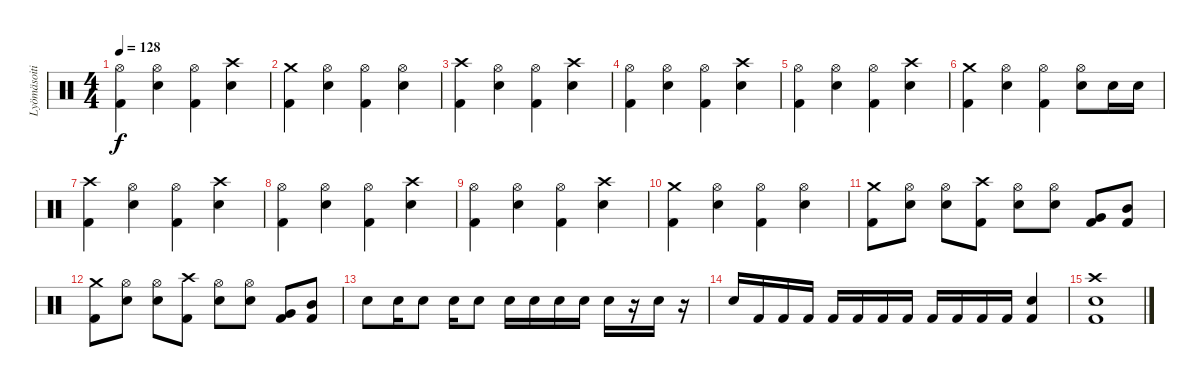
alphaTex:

\track ("Lyömäsoitin" "Lyömäsoiti") {instrument percussion}
\staff {score}
\articulation defaults
\ts (4 4)
\tempo 128
\clef neutral
\ks c
("Hi-Hat (open)" "Kick (hit) 2").4{dy f} ("Hi-Hat (open)" "Electric Snare (hit)").4 ("Hi-Hat (open)" "Kick (hit) 2").4 ("Crash high (hit)" "Electric Snare (hit)").4 |
("Crash medium (hit)" "Kick (hit) 2").4 ("Hi-Hat (open)" "Electric Snare (hit)").4 ("Hi-Hat (open)" "Kick (hit) 2").4 ("Hi-Hat (open)" "Electric Snare (hit)").4 |
("Crash high (hit)" "Kick (hit) 2").4 ("Hi-Hat (open)" "Electric Snare (hit)").4 ("Hi-Hat (open)" "Kick (hit) 2").4 ("Crash high (hit)" "Electric Snare (hit)").4 |
("Hi-Hat (open)" "Kick (hit) 2").4 ("Hi-Hat (open)" "Electric Snare (hit)").4 ("Hi-Hat (open)" "Kick (hit) 2").4 ("Crash high (hit)" "Electric Snare (hit)").4 |
("Hi-Hat (open)" "Kick (hit) 2").4 ("Hi-Hat (open)" "Electric Snare (hit)").4 ("Hi-Hat (open)" "Kick (hit) 2").4 ("Crash high (hit)" "Electric Snare (hit)").4 |
("Crash medium (hit)" "Kick (hit) 2").4 ("Hi-Hat (open)" "Electric Snare (hit)").4 ("Hi-Hat (open)" "Kick (hit) 2").4 ("Hi-Hat (open)" "Electric Snare (hit)").8 "Electric Snare (hit)".16 "Electric Snare (hit)".16 |
("Crash high (hit)" "Kick (hit) 2").4 ("Hi-Hat (open)" "Electric Snare (hit)").4 ("Hi-Hat (open)" "Kick (hit) 2").4 ("Crash high (hit)" "Electric Snare (hit)").4 |
("Hi-Hat (open)" "Kick (hit) 2").4 ("Hi-Hat (open)" "Electric Snare (hit)").4 ("Hi-Hat (open)" "Kick (hit) 2").4 ("Crash high (hit)" "Electric Snare (hit)").4 |
("Hi-Hat (open)" "Kick (hit) 2").4 ("Hi-Hat (open)" "Electric Snare (hit)").4 ("Hi-Hat (open)" "Kick (hit) 2").4 ("Crash high (hit)" "Electric Snare (hit)").4 |
("Crash medium (hit)" "Kick (hit) 2").4 ("Hi-Hat (open)" "Electric Snare (hit)").4 ("Hi-Hat (open)" "Kick (hit) 2").4 ("Hi-Hat (open)" "Electric Snare (hit)").4 |
("Crash medium (hit)" "Kick (hit) 2").8 ("Hi-Hat (open)" "Electric Snare (hit)").8 ("Hi-Hat (open)" "Electric Snare (hit)").8 ("Crash high (hit)" "Kick (hit) 2").8 ("Hi-Hat (open)" "Electric Snare (hit)").8 ("Hi-Hat (open)" "Electric Snare (hit)").8 ("Very Low Tom (hit)" "Kick (hit) 2").8 ("Mid Tom (hit)" "Kick (hit) 2").8 |
("Crash medium (hit)" "Kick (hit) 2").8 ("Hi-Hat (open)" "Electric Snare (hit)").8 ("Hi-Hat (open)" "Electric Snare (hit)").8 ("Crash high (hit)" "Kick (hit) 2").8 ("Hi-Hat (open)" "Electric Snare (hit)").8 ("Hi-Hat (open)" "Electric Snare (hit)").8 ("Very Low Tom (hit)" "Kick (hit) 2").8 ("Mid Tom (hit)" "Kick (hit) 2").8 |
"Electric Snare (hit)".8 "Electric Snare (hit)".16 "Electric Snare (hit)".8 "Electric Snare (hit)".16 "Electric Snare (hit)".8 "Electric Snare (hit)".16 "Electric Snare (hit)".16 "Electric Snare (hit)".16 "Electric Snare (hit)".16 "Electric Snare (hit)".16 r.16 "Electric Snare (hit)".16 r.16 |
"Electric Snare (hit)".16 "Kick (hit) 2".16 "Kick (hit) 2".16 "Kick (hit) 2".16 "Kick (hit) 2".16 "Kick (hit) 2".16 "Kick (hit) 2".16 "Kick (hit) 2".16 "Kick (hit) 2".16 "Kick (hit) 2".16 "Kick (hit) 2".16 "Kick (hit) 2".16 ("Electric Snare (hit)" "Kick (hit) 2").4 |
("Crash high (hit)" "Electric Snare (hit)" "Kick (hit) 2").1
